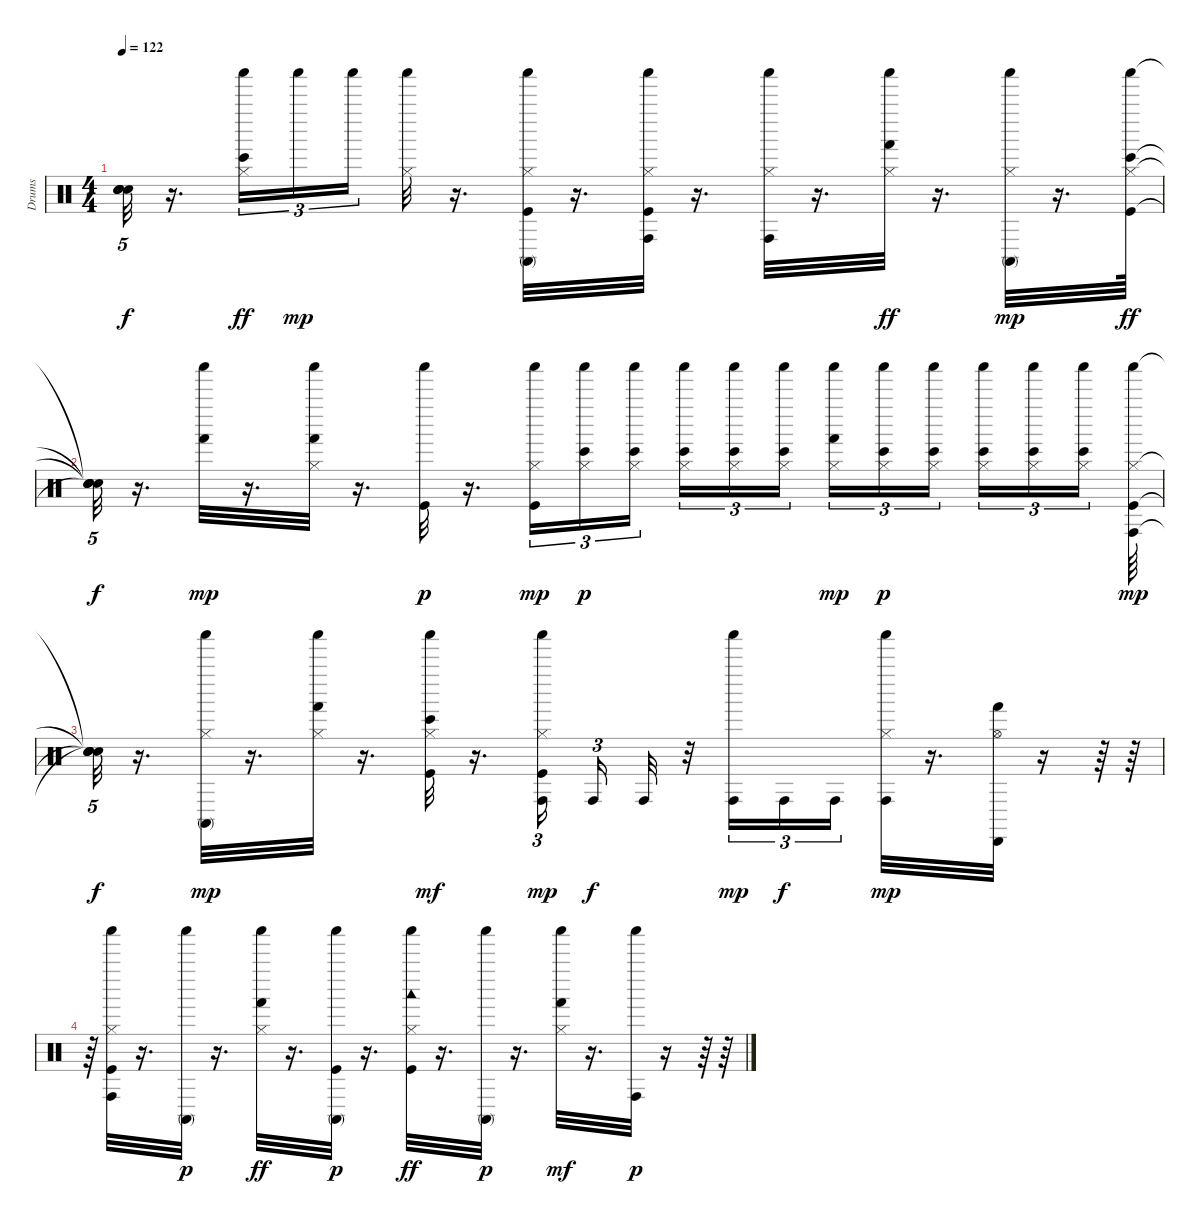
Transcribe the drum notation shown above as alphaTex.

\track ("Drums" "Drums") {instrument percussion}
\staff {score}
\articulation defaults
\ts (4 4)
\tempo 122
\clef neutral
\ks c
("Snare (hit)"{t} "Snare (hit)"{t} "Snare (hit)"{t} "Snare (hit)"{t}).32{tu (5 4) dy f} r.16{d} ("Shaker (hit)" "Hi-Hat (closed)" "Bongo High (hit)").16{tu (3 2) dy ff} "Shaker (hit)".16{tu (3 2) dy mp} "Shaker (hit)".16{tu (3 2) beam splitsecondary} ("Hi-Hat (closed)" "Shaker (hit)").32 r.16{d} ("Kick (hit)" "Hi-Hat (closed)" "Conga high (mute)" "Shaker (hit)").32 r.16{d} ("Kick (hit)" "Hi-Hat (closed)" "Shaker (hit)" "Conga high (hit)").32 r.16{d} ("Shaker (hit)" "Hi-Hat (closed)" "Conga high (hit)").32 r.16{d} ("Hi-Hat (closed)" "Shaker (hit)" "Hand (hit)").32{dy ff} r.16{d} ("Shaker (hit)" "Hi-Hat (closed)" "Conga high (mute)").32{dy mp} r.16{d} ("Kick (hit)" "Hi-Hat (closed)" "Shaker (hit)" "Bongo High (hit)").64{dy ff} |
("Snare (hit)"{t} "Snare (hit)"{t} "Snare (hit)"{t} "Snare (hit)"{t}).32{tu (5 4) dy f} r.16{d} ("Shaker (hit)" "Hand (hit)").32{dy mp} r.16{d} ("Hi-Hat (closed)" "Shaker (hit)" "Hand (hit)").32 r.16{d} ("Kick (hit)" "Shaker (hit)").32{dy p} r.16{d} ("Kick (hit)" "Hi-Hat (closed)" "Shaker (hit)").16{tu (3 2) dy mp} ("Hi-Hat (closed)" "Bongo High (hit)" "Shaker (hit)").16{tu (3 2) dy p} ("Hi-Hat (closed)" "Bongo High (hit)" "Shaker (hit)").16{tu (3 2) beam splitsecondary} ("Hi-Hat (closed)" "Bongo High (hit)" "Shaker (hit)").16{tu (3 2)} ("Hi-Hat (closed)" "Bongo High (hit)" "Shaker (hit)").16{tu (3 2)} ("Hi-Hat (closed)" "Bongo High (hit)" "Shaker (hit)").16{tu (3 2) beam splitsecondary} ("Hi-Hat (closed)" "Hand (hit)" "Shaker (hit)").16{tu (3 2) dy mp} ("Hi-Hat (closed)" "Bongo High (hit)" "Shaker (hit)").16{tu (3 2) dy p} ("Hi-Hat (closed)" "Bongo High (hit)" "Shaker (hit)").16{tu (3 2) beam splitsecondary} ("Hi-Hat (closed)" "Bongo High (hit)" "Shaker (hit)").16{tu (3 2)} ("Hi-Hat (closed)" "Bongo High (hit)" "Shaker (hit)").16{tu (3 2)} ("Hi-Hat (closed)" "Bongo High (hit)" "Shaker (hit)").16{tu (3 2) beam splitsecondary} ("Kick (hit)" "Hi-Hat (closed)" "Conga high (hit)" "Shaker (hit)").64{dy mp} |
("Snare (hit)"{t} "Snare (hit)"{t} "Snare (hit)"{t} "Snare (hit)"{t}).32{tu (5 4) dy f} r.16{d} ("Conga high (mute)" "Hi-Hat (closed)" "Shaker (hit)").32{dy mp} r.16{d} ("Hand (hit)" "Hi-Hat (closed)" "Shaker (hit)").32 r.16{d} ("Bongo High (hit)" "Shaker (hit)" "Kick (hit)" "Hi-Hat (closed)").32{dy mf} r.16{d} ("Conga high (hit)" "Shaker (hit)" "Kick (hit)" "Hi-Hat (closed)").16{tu (3 2) dy mp} "Conga high (hit)".16{tu (3 2) dy f} "Conga high (hit)".32 r.32 ("Shaker (hit)" "Conga high (hit)").16{tu (3 2) dy mp} "Conga high (hit)".16{tu (3 2) dy f} "Conga high (hit)".16{tu (3 2)} ("Hi-Hat (closed)" "Conga high (hit)" "Shaker (hit)").32{dy mp} r.16{d} ("Hi-Hat (open)" "Hand (hit)" "Cabasa (hit)").32 r.16 r.64 r.64 |
r.64 ("Kick (hit)" "Hi-Hat (closed)" "Conga high (hit)" "Shaker (hit)").32 r.16{d} ("Conga high (mute)" "Shaker (hit)").32{dy p} r.16{d} ("Shaker (hit)" "Hi-Hat (closed)" "Hand (hit)").32{dy ff} r.16{d} ("Shaker (hit)" "Kick (hit)" "Conga high (mute)").32{dy p} r.16{d} ("Shaker (hit)" "Kick (hit)" "Hi-Hat (closed)" "Woodblock low (hit)").32{dy ff} r.16{d} ("Shaker (hit)" "Conga high (mute)").32{dy p} r.16{d} ("Shaker (hit)" "Hi-Hat (closed)" "Hand (hit)").32{dy mf} r.16{d} ("Shaker (hit)" "Conga high (hit)").32{dy p} r.16 r.64 r.64
